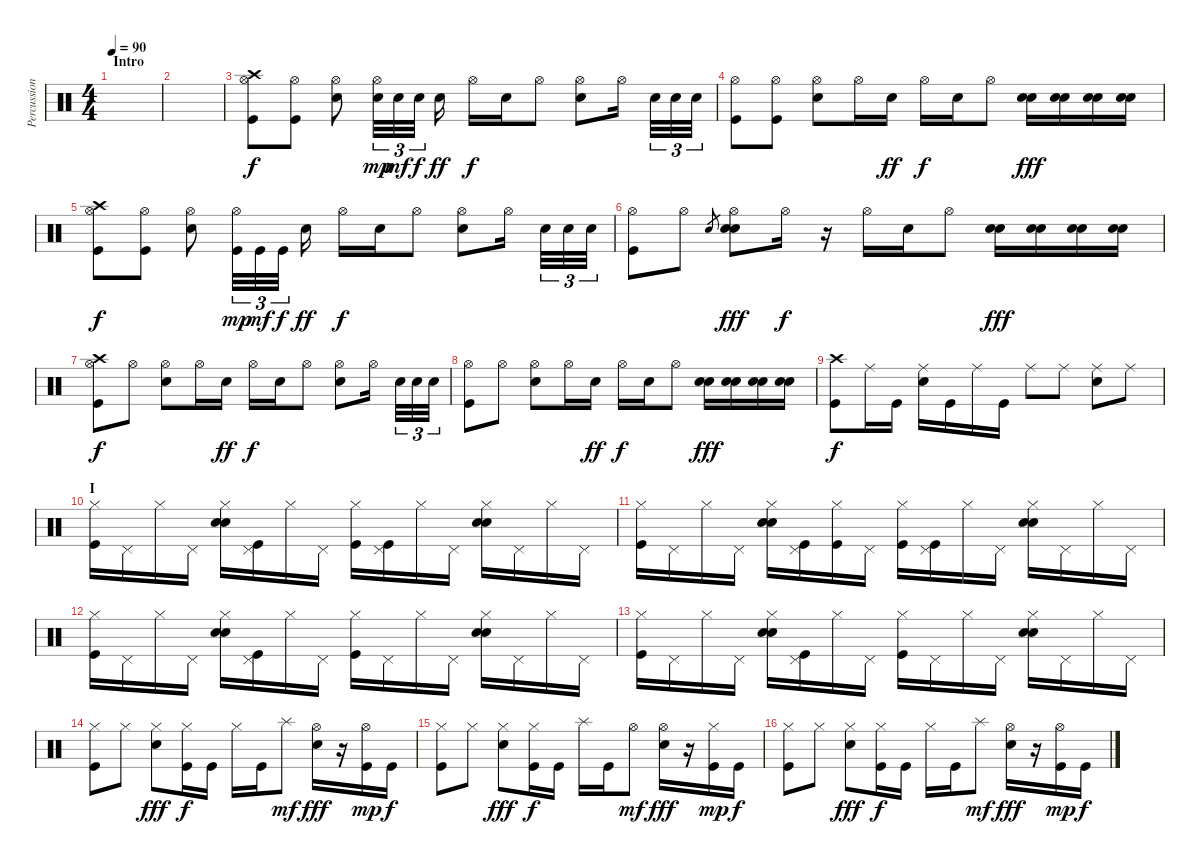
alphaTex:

\track ("Percussions" "Percussion") {instrument percussion}
\staff {score}
\articulation defaults
\ts (4 4)
\section ("" "Intro")
\tempo 90
\clef neutral
\ks c
|
|
("Hi-Hat (open)" "Crash high (hit)" "Kick (hit)").8 ("Hi-Hat (open)" "Kick (hit)").8 ("Hi-Hat (open)" "Snare (hit) 2").8 ("Hi-Hat (open)" "Snare (hit) 2").32{tu (3 2) dy mp} "Snare (hit) 2".32{tu (3 2) dy mf} "Snare (hit) 2".32{tu (3 2) dy f} "Snare (hit) 2".16{dy ff} "Hi-Hat (open)".16{dy f} "Snare (hit) 2".16 "Hi-Hat (open)".8 ("Hi-Hat (open)" "Snare (hit) 2").8 "Hi-Hat (open)".16 "Snare (hit) 2".32{tu (3 2)} "Snare (hit) 2".32{tu (3 2)} "Snare (hit) 2".32{tu (3 2)} |
("Hi-Hat (open)" "Kick (hit)").8 ("Hi-Hat (open)" "Kick (hit)").8 ("Hi-Hat (open)" "Snare (hit) 2").8 "Hi-Hat (open)".16 "Snare (hit) 2".16{dy ff} "Hi-Hat (open)".16{dy f} "Snare (hit) 2".16 "Hi-Hat (open)".8 ("Snare (hit) 2" "Snare (hit) 2").16{dy fff} ("Snare (hit) 2" "Snare (hit) 2").16 ("Snare (hit) 2" "Snare (hit) 2").16 ("Snare (hit) 2" "Snare (hit) 2").16 |
("Hi-Hat (open)" "Crash high (hit)" "Kick (hit)").8{dy f} ("Hi-Hat (open)" "Kick (hit)").8 ("Hi-Hat (open)" "Snare (hit) 2").8 ("Hi-Hat (open)" "Kick (hit)").32{tu (3 2) dy mp} "Kick (hit)".32{tu (3 2) dy mf} "Kick (hit)".32{tu (3 2) dy f} "Snare (hit) 2".16{dy ff} "Hi-Hat (open)".16{dy f} "Snare (hit) 2".16 "Hi-Hat (open)".8 ("Hi-Hat (open)" "Snare (hit) 2").8 "Hi-Hat (open)".16 "Snare (hit) 2".32{tu (3 2)} "Snare (hit) 2".32{tu (3 2)} "Snare (hit) 2".32{tu (3 2)} |
("Hi-Hat (open)" "Kick (hit)").8 "Hi-Hat (open)".8 "Snare (hit) 2".8{gr} ("Hi-Hat (open)" "Electric Snare (hit)" "Snare (hit) 2").8{dy fff} "Hi-Hat (open)".16{dy f} r.16 "Hi-Hat (open)".16 "Snare (hit) 2".16 "Hi-Hat (open)".8 ("Snare (hit) 2" "Snare (hit) 2").16{dy fff} ("Snare (hit) 2" "Snare (hit) 2").16 ("Snare (hit) 2" "Snare (hit) 2").16 ("Snare (hit) 2" "Snare (hit) 2").16 |
("Hi-Hat (open)" "Crash high (hit)" "Kick (hit)").8{dy f} "Hi-Hat (open)".8 ("Hi-Hat (open)" "Snare (hit) 2").8 "Hi-Hat (open)".16 "Snare (hit) 2".16{dy ff} "Hi-Hat (open)".16{dy f} "Snare (hit) 2".16 "Hi-Hat (open)".8 ("Hi-Hat (open)" "Snare (hit) 2").8 "Hi-Hat (open)".16 "Snare (hit) 2".32{tu (3 2)} "Snare (hit) 2".32{tu (3 2)} "Snare (hit) 2".32{tu (3 2)} |
("Hi-Hat (open)" "Kick (hit)").8 "Hi-Hat (open)".8 ("Hi-Hat (open)" "Snare (hit) 2").8 "Hi-Hat (open)".16 "Snare (hit) 2".16{dy ff} "Hi-Hat (open)".16{dy f} "Snare (hit) 2".16 "Hi-Hat (open)".8 ("Snare (hit) 2" "Snare (hit) 2").16{dy fff} ("Snare (hit) 2" "Snare (hit) 2").16 ("Snare (hit) 2" "Snare (hit) 2").16 ("Snare (hit) 2" "Snare (hit) 2").16 |
("Crash high (hit)" "Kick (hit)").8{dy f} "Ride (middle)".16 "Kick (hit)".16 ("Ride (middle)" "Snare (hit) 2").16 "Kick (hit)".16 "Ride (middle)".16 "Kick (hit)".16 "Ride (middle)".8 "Ride (middle)".8 ("Ride (middle)" "Snare (hit) 2").8 "Ride (middle)".8 |
\section ("" "I")
("Hi-Hat (closed)" "Kick (hit)").16 "Pedal Hi-Hat (hit)".16 "Hi-Hat (closed)".16 "Pedal Hi-Hat (hit)".16 ("Hi-Hat (closed)" "Electric Snare (hit)" "Snare (hit) 2").16 ("Pedal Hi-Hat (hit)" "Kick (hit)").16 "Hi-Hat (closed)".16 "Pedal Hi-Hat (hit)".16 ("Hi-Hat (closed)" "Kick (hit)").16 ("Pedal Hi-Hat (hit)" "Kick (hit)").16 "Hi-Hat (closed)".16 "Pedal Hi-Hat (hit)".16 ("Hi-Hat (closed)" "Electric Snare (hit)" "Snare (hit) 2").16 "Pedal Hi-Hat (hit)".16 "Hi-Hat (closed)".16 "Pedal Hi-Hat (hit)".16 |
("Hi-Hat (closed)" "Kick (hit)").16 "Pedal Hi-Hat (hit)".16 "Hi-Hat (closed)".16 "Pedal Hi-Hat (hit)".16 ("Hi-Hat (closed)" "Electric Snare (hit)" "Snare (hit) 2").16 ("Pedal Hi-Hat (hit)" "Kick (hit)").16 ("Hi-Hat (closed)" "Kick (hit)").16 "Pedal Hi-Hat (hit)".16 ("Hi-Hat (closed)" "Kick (hit)").16 ("Pedal Hi-Hat (hit)" "Kick (hit)").16 "Hi-Hat (closed)".16 "Pedal Hi-Hat (hit)".16 ("Hi-Hat (closed)" "Electric Snare (hit)" "Snare (hit) 2").16 "Pedal Hi-Hat (hit)".16 "Hi-Hat (closed)".16 "Pedal Hi-Hat (hit)".16 |
("Hi-Hat (closed)" "Kick (hit)").16 "Pedal Hi-Hat (hit)".16 "Hi-Hat (closed)".16 "Pedal Hi-Hat (hit)".16 ("Hi-Hat (closed)" "Electric Snare (hit)" "Snare (hit) 2").16 ("Pedal Hi-Hat (hit)" "Kick (hit)").16 "Hi-Hat (closed)".16 "Pedal Hi-Hat (hit)".16 ("Hi-Hat (closed)" "Kick (hit)").16 "Pedal Hi-Hat (hit)".16 "Hi-Hat (closed)".16 "Pedal Hi-Hat (hit)".16 ("Hi-Hat (closed)" "Electric Snare (hit)" "Snare (hit) 2").16 "Pedal Hi-Hat (hit)".16 "Hi-Hat (closed)".16 "Pedal Hi-Hat (hit)".16 |
("Hi-Hat (closed)" "Kick (hit)").16 "Pedal Hi-Hat (hit)".16 "Hi-Hat (closed)".16 "Pedal Hi-Hat (hit)".16 ("Hi-Hat (closed)" "Electric Snare (hit)" "Snare (hit) 2").16 ("Pedal Hi-Hat (hit)" "Kick (hit)").16 "Hi-Hat (closed)".16 "Pedal Hi-Hat (hit)".16 ("Hi-Hat (closed)" "Kick (hit)").16 "Pedal Hi-Hat (hit)".16 "Hi-Hat (closed)".16 "Pedal Hi-Hat (hit)".16 ("Hi-Hat (closed)" "Electric Snare (hit)" "Snare (hit) 2").16 "Pedal Hi-Hat (hit)".16 "Hi-Hat (closed)".16 "Pedal Hi-Hat (hit)".16 |
("Hi-Hat (closed)" "Kick (hit)").8{volume 16} "Hi-Hat (closed)".8 ("Hi-Hat (closed)" "Snare (hit) 2").8{dy fff} ("Hi-Hat (closed)" "Kick (hit)").16{dy f} "Kick (hit)".16 "Hi-Hat (closed)".16 "Kick (hit)".16 "Splash (hit)".8{dy mf} ("Hi-Hat (open)" "Snare (hit) 2").16{dy fff} r.16 ("Hi-Hat (open)" "Kick (hit)").16{dy mp} "Kick (hit)".16{dy f} |
("Hi-Hat (closed)" "Kick (hit)").8 "Hi-Hat (closed)".8 ("Hi-Hat (closed)" "Snare (hit) 2").8{dy fff} ("Hi-Hat (closed)" "Kick (hit)").16{dy f} "Kick (hit)".16 "Splash (hit)".16 "Kick (hit)".16 "Hi-Hat (open)".8{dy mf} ("Hi-Hat (open)" "Snare (hit) 2").16{dy fff} r.16 ("Hi-Hat (closed)" "Kick (hit)").16{dy mp} "Kick (hit)".16{dy f} |
("Hi-Hat (closed)" "Kick (hit)").8 "Hi-Hat (closed)".8 ("Hi-Hat (closed)" "Snare (hit) 2").8{dy fff} ("Hi-Hat (closed)" "Kick (hit)").16{dy f} "Kick (hit)".16 "Hi-Hat (closed)".16 "Kick (hit)".16 "Splash (hit)".8{dy mf} ("Hi-Hat (open)" "Snare (hit) 2").16{dy fff} r.16 ("Hi-Hat (open)" "Kick (hit)").16{dy mp} "Kick (hit)".16{dy f}
